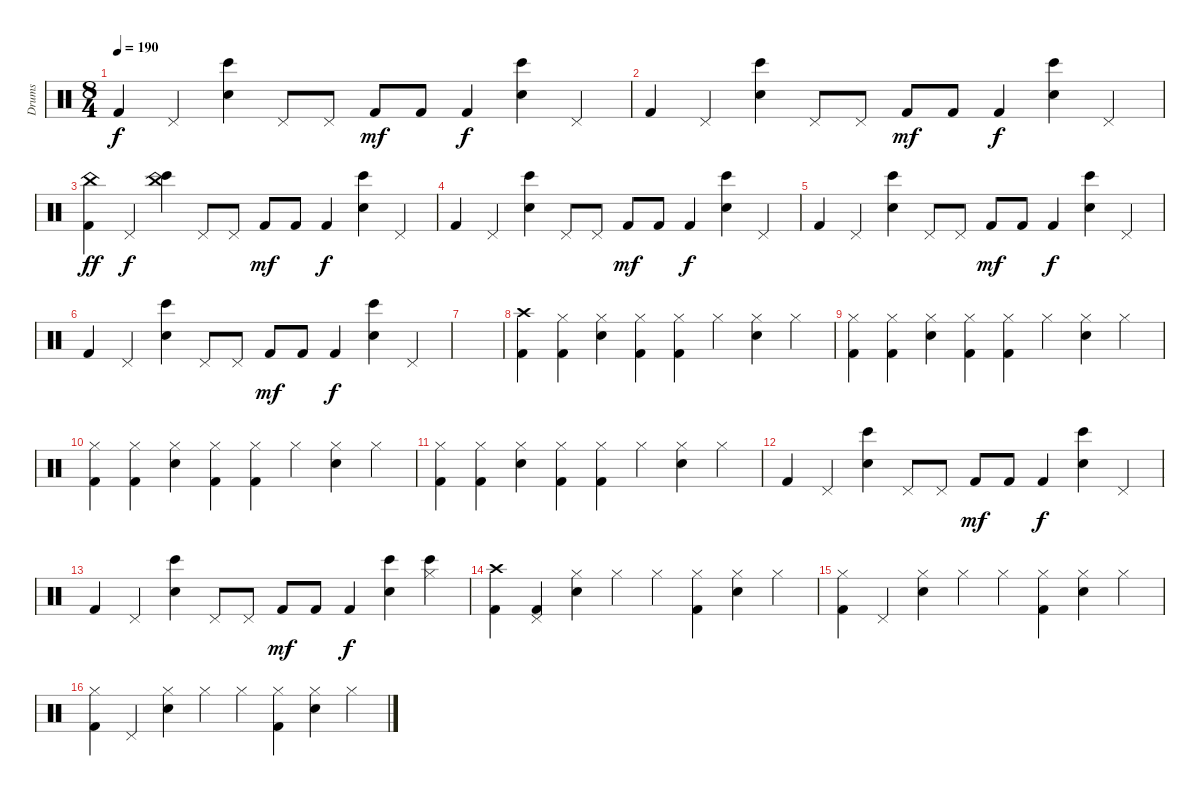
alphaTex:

\track ("Drums" "Drums") {instrument percussion}
\staff {score}
\articulation defaults
\ts (8 4)
\tempo 190
\clef neutral
\ks c "Kick (hit) 2".4{dy f volume 8} "Pedal Hi-Hat (hit)".4
("Bongo High (hit)" "Hand Clap (hit)").4 "Pedal Hi-Hat (hit)".8 "Pedal Hi-Hat (hit)".8 "Kick (hit) 2".8{dy mf} "Kick (hit) 2".8 "Kick (hit) 2".4{dy f} ("Bongo High (hit)" "Hand Clap (hit)").4 "Pedal Hi-Hat (hit)".4 |
"Kick (hit) 2".4{volume 8} "Pedal Hi-Hat (hit)".4 ("Bongo High (hit)" "Hand Clap (hit)").4 "Pedal Hi-Hat (hit)".8 "Pedal Hi-Hat (hit)".8 "Kick (hit) 2".8{dy mf} "Kick (hit) 2".8 "Kick (hit) 2".4{dy f} ("Bongo High (hit)" "Hand Clap (hit)").4 "Pedal Hi-Hat (hit)".4 |
("Kick (hit) 2" "China (hit)").4{dy ff volume 8} "Pedal Hi-Hat (hit)".4{dy f} ("Bongo High (hit)" "China (hit)").4 "Pedal Hi-Hat (hit)".8 "Pedal Hi-Hat (hit)".8 "Kick (hit) 2".8{dy mf} "Kick (hit) 2".8 "Kick (hit) 2".4{dy f} ("Bongo High (hit)" "Hand Clap (hit)").4 "Pedal Hi-Hat (hit)".4 |
"Kick (hit) 2".4{volume 8} "Pedal Hi-Hat (hit)".4 ("Bongo High (hit)" "Hand Clap (hit)").4 "Pedal Hi-Hat (hit)".8 "Pedal Hi-Hat (hit)".8 "Kick (hit) 2".8{dy mf} "Kick (hit) 2".8 "Kick (hit) 2".4{dy f} ("Bongo High (hit)" "Hand Clap (hit)").4 "Pedal Hi-Hat (hit)".4 |
"Kick (hit) 2".4{volume 8} "Pedal Hi-Hat (hit)".4 ("Bongo High (hit)" "Hand Clap (hit)").4 "Pedal Hi-Hat (hit)".8 "Pedal Hi-Hat (hit)".8 "Kick (hit) 2".8{dy mf} "Kick (hit) 2".8 "Kick (hit) 2".4{dy f} ("Bongo High (hit)" "Hand Clap (hit)").4 "Pedal Hi-Hat (hit)".4 |
"Kick (hit) 2".4{volume 8} "Pedal Hi-Hat (hit)".4 ("Bongo High (hit)" "Hand Clap (hit)").4 "Pedal Hi-Hat (hit)".8 "Pedal Hi-Hat (hit)".8 "Kick (hit) 2".8{dy mf} "Kick (hit) 2".8 "Kick (hit) 2".4{dy f} ("Bongo High (hit)" "Hand Clap (hit)").4 "Pedal Hi-Hat (hit)".4 |
|
("Crash high (hit)" "Kick (hit) 2").4{volume 13} ("Hi-Hat (closed)" "Kick (hit) 2").4 ("Hi-Hat (closed)" "Snare (hit) 2").4 ("Hi-Hat (closed)" "Kick (hit) 2").4 ("Hi-Hat (closed)" "Kick (hit) 2").4 "Hi-Hat (closed)".4 ("Hi-Hat (closed)" "Snare (hit) 2").4 "Hi-Hat (closed)".4 |
("Hi-Hat (closed)" "Kick (hit) 2").4 ("Hi-Hat (closed)" "Kick (hit) 2").4 ("Hi-Hat (closed)" "Snare (hit) 2").4 ("Hi-Hat (closed)" "Kick (hit) 2").4 ("Hi-Hat (closed)" "Kick (hit) 2").4 "Hi-Hat (closed)".4 ("Hi-Hat (closed)" "Snare (hit) 2").4 "Hi-Hat (closed)".4 |
("Hi-Hat (closed)" "Kick (hit) 2").4 ("Hi-Hat (closed)" "Kick (hit) 2").4 ("Hi-Hat (closed)" "Snare (hit) 2").4 ("Hi-Hat (closed)" "Kick (hit) 2").4 ("Hi-Hat (closed)" "Kick (hit) 2").4 "Hi-Hat (closed)".4 ("Hi-Hat (closed)" "Snare (hit) 2").4 "Hi-Hat (closed)".4 |
("Hi-Hat (closed)" "Kick (hit) 2").4 ("Hi-Hat (closed)" "Kick (hit) 2").4 ("Hi-Hat (closed)" "Snare (hit) 2").4 ("Hi-Hat (closed)" "Kick (hit) 2").4 ("Hi-Hat (closed)" "Kick (hit) 2").4 "Hi-Hat (closed)".4 ("Hi-Hat (closed)" "Snare (hit) 2").4 "Hi-Hat (closed)".4 |
"Kick (hit) 2".4{volume 8} "Pedal Hi-Hat (hit)".4 ("Bongo High (hit)" "Hand Clap (hit)").4 "Pedal Hi-Hat (hit)".8 "Pedal Hi-Hat (hit)".8 "Kick (hit) 2".8{dy mf} "Kick (hit) 2".8 "Kick (hit) 2".4{dy f} ("Bongo High (hit)" "Hand Clap (hit)").4 "Pedal Hi-Hat (hit)".4 |
"Kick (hit) 2".4{volume 8} "Pedal Hi-Hat (hit)".4 ("Bongo High (hit)" "Hand Clap (hit)").4 "Pedal Hi-Hat (hit)".8 "Pedal Hi-Hat (hit)".8 "Kick (hit) 2".8{dy mf} "Kick (hit) 2".8 "Kick (hit) 2".4{dy f} ("Bongo High (hit)" "Hand Clap (hit)").4{volume 13} ("Bongo High (hit)" "Hi-Hat (closed)").4 |
("Crash high (hit)" "Kick (hit) 2").4 ("Pedal Hi-Hat (hit)" "Kick (hit) 2").4 ("Hi-Hat (closed)" "Snare (hit) 2").4 "Hi-Hat (closed)".4 "Hi-Hat (closed)".4 ("Hi-Hat (closed)" "Kick (hit) 2").4 ("Hi-Hat (closed)" "Snare (hit) 2").4 "Hi-Hat (closed)".4 |
("Hi-Hat (closed)" "Kick (hit) 2").4 "Pedal Hi-Hat (hit)".4 ("Hi-Hat (closed)" "Snare (hit) 2").4 "Hi-Hat (closed)".4 "Hi-Hat (closed)".4 ("Hi-Hat (closed)" "Kick (hit) 2").4 ("Hi-Hat (closed)" "Snare (hit) 2").4 "Hi-Hat (closed)".4 |
("Hi-Hat (closed)" "Kick (hit) 2").4 "Pedal Hi-Hat (hit)".4 ("Hi-Hat (closed)" "Snare (hit) 2").4 "Hi-Hat (closed)".4 "Hi-Hat (closed)".4 ("Hi-Hat (closed)" "Kick (hit) 2").4 ("Hi-Hat (closed)" "Snare (hit) 2").4 "Hi-Hat (closed)".4
